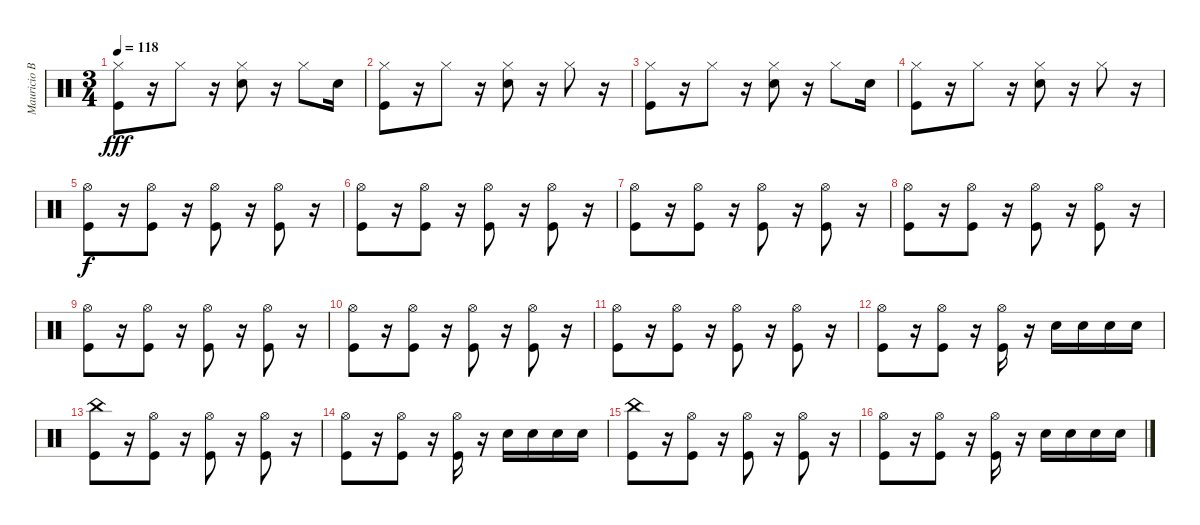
\track ("Mauricio Basualto" "Mauricio B") {instrument percussion}
\staff {score}
\articulation defaults
\ts (3 4)
\tempo 118
\clef neutral
\ks c
("Hi-Hat (closed)" "Kick (hit)").8{dy fff} r.16 "Hi-Hat (closed)".8 r.16 ("Hi-Hat (closed)" "Snare (hit) 2").8 r.16 "Hi-Hat (closed)".8 "Snare (hit) 2".16 |
("Hi-Hat (closed)" "Kick (hit)").8 r.16 "Hi-Hat (closed)".8 r.16 ("Hi-Hat (closed)" "Snare (hit) 2").8 r.16 "Hi-Hat (closed)".8 r.16 |
("Hi-Hat (closed)" "Kick (hit)").8 r.16 "Hi-Hat (closed)".8 r.16 ("Hi-Hat (closed)" "Snare (hit) 2").8 r.16 "Hi-Hat (closed)".8 "Snare (hit) 2".16 |
("Hi-Hat (closed)" "Kick (hit)").8 r.16 "Hi-Hat (closed)".8 r.16 ("Hi-Hat (closed)" "Snare (hit) 2").8 r.16 "Hi-Hat (closed)".8 r.16 |
("Hi-Hat (open)" "Kick (hit)").8{dy f} r.16 ("Hi-Hat (open)" "Kick (hit)").8 r.16 ("Hi-Hat (open)" "Kick (hit)").8 r.16 ("Hi-Hat (open)" "Kick (hit)").8 r.16 |
("Hi-Hat (open)" "Kick (hit)").8 r.16 ("Hi-Hat (open)" "Kick (hit)").8 r.16 ("Hi-Hat (open)" "Kick (hit)").8 r.16 ("Hi-Hat (open)" "Kick (hit)").8 r.16 |
("Hi-Hat (open)" "Kick (hit)").8 r.16 ("Hi-Hat (open)" "Kick (hit)").8 r.16 ("Hi-Hat (open)" "Kick (hit)").8 r.16 ("Hi-Hat (open)" "Kick (hit)").8 r.16 |
("Hi-Hat (open)" "Kick (hit)").8 r.16 ("Hi-Hat (open)" "Kick (hit)").8 r.16 ("Hi-Hat (open)" "Kick (hit)").8 r.16 ("Hi-Hat (open)" "Kick (hit)").8 r.16 |
("Hi-Hat (open)" "Kick (hit)").8 r.16 ("Hi-Hat (open)" "Kick (hit)").8 r.16 ("Hi-Hat (open)" "Kick (hit)").8 r.16 ("Hi-Hat (open)" "Kick (hit)").8 r.16 |
("Hi-Hat (open)" "Kick (hit)").8 r.16 ("Hi-Hat (open)" "Kick (hit)").8 r.16 ("Hi-Hat (open)" "Kick (hit)").8 r.16 ("Hi-Hat (open)" "Kick (hit)").8 r.16 |
("Hi-Hat (open)" "Kick (hit)").8 r.16 ("Hi-Hat (open)" "Kick (hit)").8 r.16 ("Hi-Hat (open)" "Kick (hit)").8 r.16 ("Hi-Hat (open)" "Kick (hit)").8 r.16 |
("Hi-Hat (open)" "Kick (hit)").8 r.16 ("Hi-Hat (open)" "Kick (hit)").8 r.16 ("Hi-Hat (open)" "Kick (hit)").16 r.16 "Snare (hit) 2".16 "Snare (hit) 2".16 "Snare (hit) 2".16 "Snare (hit) 2".16 |
("China (hit)" "Kick (hit)").8 r.16 ("Hi-Hat (open)" "Kick (hit)").8 r.16 ("Hi-Hat (open)" "Kick (hit)").8 r.16 ("Hi-Hat (open)" "Kick (hit)").8 r.16 |
("Hi-Hat (open)" "Kick (hit)").8 r.16 ("Hi-Hat (open)" "Kick (hit)").8 r.16 ("Hi-Hat (open)" "Kick (hit)").16 r.16 "Snare (hit) 2".16 "Snare (hit) 2".16 "Snare (hit) 2".16 "Snare (hit) 2".16 |
("China (hit)" "Kick (hit)").8 r.16 ("Hi-Hat (open)" "Kick (hit)").8 r.16 ("Hi-Hat (open)" "Kick (hit)").8 r.16 ("Hi-Hat (open)" "Kick (hit)").8 r.16 |
("Hi-Hat (open)" "Kick (hit)").8 r.16 ("Hi-Hat (open)" "Kick (hit)").8 r.16 ("Hi-Hat (open)" "Kick (hit)").16 r.16 "Snare (hit) 2".16 "Snare (hit) 2".16 "Snare (hit) 2".16 "Snare (hit) 2".16
